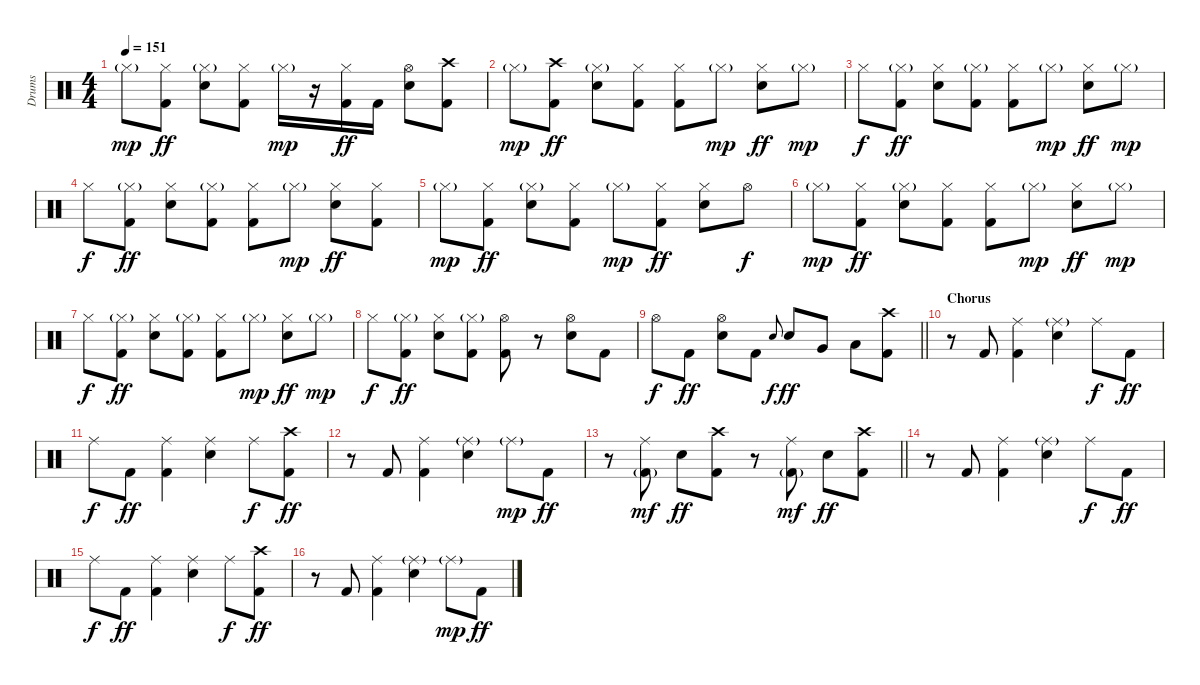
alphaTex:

\track ("Drums" "Drums") {instrument percussion}
\staff {score}
\articulation defaults
\ts (4 4)
\tempo 151
\clef neutral
\ks c "Hi-Hat (closed)"{g}.8{dy mp}
("Hi-Hat (closed)" "Kick (hit) 2").8{dy ff} ("Hi-Hat (closed)"{g} "Electric Snare (hit)").8 ("Hi-Hat (closed)" "Kick (hit) 2").8 "Hi-Hat (closed)"{g}.16{dy mp} r.16 ("Hi-Hat (closed)" "Kick (hit) 2").16{dy ff} "Kick (hit) 2".16 ("Hi-Hat (open)" "Electric Snare (hit)").8 ("Crash high (hit)" "Kick (hit) 2").8 |
"Hi-Hat (closed)"{g}.8{dy mp} ("Crash high (hit)" "Kick (hit) 2").8{dy ff} ("Hi-Hat (closed)"{g} "Electric Snare (hit)").8 ("Hi-Hat (closed)" "Kick (hit) 2").8 ("Hi-Hat (closed)" "Kick (hit) 2").8 "Hi-Hat (closed)"{g}.8{dy mp} ("Hi-Hat (closed)" "Electric Snare (hit)").8{dy ff} "Hi-Hat (closed)"{g}.8{dy mp} |
"Hi-Hat (closed)".8{dy f} ("Hi-Hat (closed)"{g} "Kick (hit) 2").8{dy ff} ("Hi-Hat (closed)" "Electric Snare (hit)").8 ("Hi-Hat (closed)"{g} "Kick (hit) 2").8 ("Hi-Hat (closed)" "Kick (hit) 2").8 "Hi-Hat (closed)"{g}.8{dy mp} ("Hi-Hat (closed)" "Electric Snare (hit)").8{dy ff} "Hi-Hat (closed)"{g}.8{dy mp} |
"Hi-Hat (closed)".8{dy f} ("Hi-Hat (closed)"{g} "Kick (hit) 2").8{dy ff} ("Hi-Hat (closed)" "Electric Snare (hit)").8 ("Hi-Hat (closed)"{g} "Kick (hit) 2").8 ("Hi-Hat (closed)" "Kick (hit) 2").8 "Hi-Hat (closed)"{g}.8{dy mp} ("Hi-Hat (closed)" "Electric Snare (hit)").8{dy ff} ("Hi-Hat (closed)" "Kick (hit) 2").8 |
"Hi-Hat (closed)"{g}.8{dy mp} ("Hi-Hat (closed)" "Kick (hit) 2").8{dy ff} ("Hi-Hat (closed)"{g} "Electric Snare (hit)").8 ("Hi-Hat (closed)" "Kick (hit) 2").8 "Hi-Hat (closed)"{g}.8{dy mp} ("Hi-Hat (closed)" "Kick (hit) 2").8{dy ff} ("Hi-Hat (closed)" "Electric Snare (hit)").8 "Hi-Hat (open)".8{dy f} |
"Hi-Hat (closed)"{g}.8{dy mp} ("Hi-Hat (closed)" "Kick (hit) 2").8{dy ff} ("Hi-Hat (closed)"{g} "Electric Snare (hit)").8 ("Hi-Hat (closed)" "Kick (hit) 2").8 ("Hi-Hat (closed)" "Kick (hit) 2").8 "Hi-Hat (closed)"{g}.8{dy mp} ("Hi-Hat (closed)" "Electric Snare (hit)").8{dy ff} "Hi-Hat (closed)"{g}.8{dy mp} |
"Hi-Hat (closed)".8{dy f} ("Hi-Hat (closed)"{g} "Kick (hit) 2").8{dy ff} ("Hi-Hat (closed)" "Electric Snare (hit)").8 ("Hi-Hat (closed)"{g} "Kick (hit) 2").8 ("Hi-Hat (closed)" "Kick (hit) 2").8 "Hi-Hat (closed)"{g}.8{dy mp} ("Hi-Hat (closed)" "Electric Snare (hit)").8{dy ff} "Hi-Hat (closed)"{g}.8{dy mp} |
"Hi-Hat (closed)".8{dy f} ("Hi-Hat (closed)"{g} "Kick (hit) 2").8{dy ff} ("Hi-Hat (closed)" "Electric Snare (hit)").8 ("Hi-Hat (closed)"{g} "Kick (hit) 2").8 ("Hi-Hat (open)" "Kick (hit) 2").8 r.8 ("Hi-Hat (open)" "Electric Snare (hit)").8 "Kick (hit) 2".8 |
\barLineRight lightlight "Hi-Hat (open)".8{dy f} "Kick (hit) 2".8{dy ff}
("Hi-Hat (open)" "Electric Snare (hit)").8 "Kick (hit) 2".8 "Electric Snare (hit)".8{gr onbeat dy f} "Electric Snare (hit)".8{dy ff} "Very Low Tom (hit)".8 "Low Floor Tom (hit)".8 ("Crash high (hit)" "Kick (hit) 2").8 |
\section ("" "Chorus")
r.8 "Kick (hit) 2".8 ("Ride (middle)" "Kick (hit) 2").4 ("Ride (middle)"{g} "Electric Snare (hit)").4 "Ride (middle)".8{dy f} "Kick (hit) 2".8{dy ff} |
"Ride (middle)".8{dy f} "Kick (hit) 2".8{dy ff} ("Ride (middle)" "Kick (hit) 2").4 ("Ride (middle)" "Electric Snare (hit)").4 "Ride (middle)".8{dy f} ("Crash high (hit)" "Kick (hit) 2").8{dy ff} |
r.8 "Kick (hit) 2".8 ("Ride (middle)" "Kick (hit) 2").4 ("Ride (middle)"{g} "Electric Snare (hit)").4 "Ride (middle)"{g}.8{dy mp} "Kick (hit) 2".8{dy ff} |
\barLineRight lightlight
r.8 ("Ride (middle)" "Kick (hit) 2"{g}).8{dy mf} "Electric Snare (hit)".8{dy ff} ("Crash high (hit)" "Kick (hit) 2").8 r.8 ("Ride (middle)" "Kick (hit) 2"{g}).8{dy mf} "Electric Snare (hit)".8{dy ff} ("Crash high (hit)" "Kick (hit) 2").8 |
r.8 "Kick (hit) 2".8 ("Ride (middle)" "Kick (hit) 2").4 ("Ride (middle)"{g} "Electric Snare (hit)").4 "Ride (middle)".8{dy f} "Kick (hit) 2".8{dy ff} |
"Ride (middle)".8{dy f} "Kick (hit) 2".8{dy ff} ("Ride (middle)" "Kick (hit) 2").4 ("Ride (middle)" "Electric Snare (hit)").4 "Ride (middle)".8{dy f} ("Crash high (hit)" "Kick (hit) 2").8{dy ff} |
r.8 "Kick (hit) 2".8 ("Ride (middle)" "Kick (hit) 2").4 ("Ride (middle)"{g} "Electric Snare (hit)").4 "Ride (middle)"{g}.8{dy mp} "Kick (hit) 2".8{dy ff}
